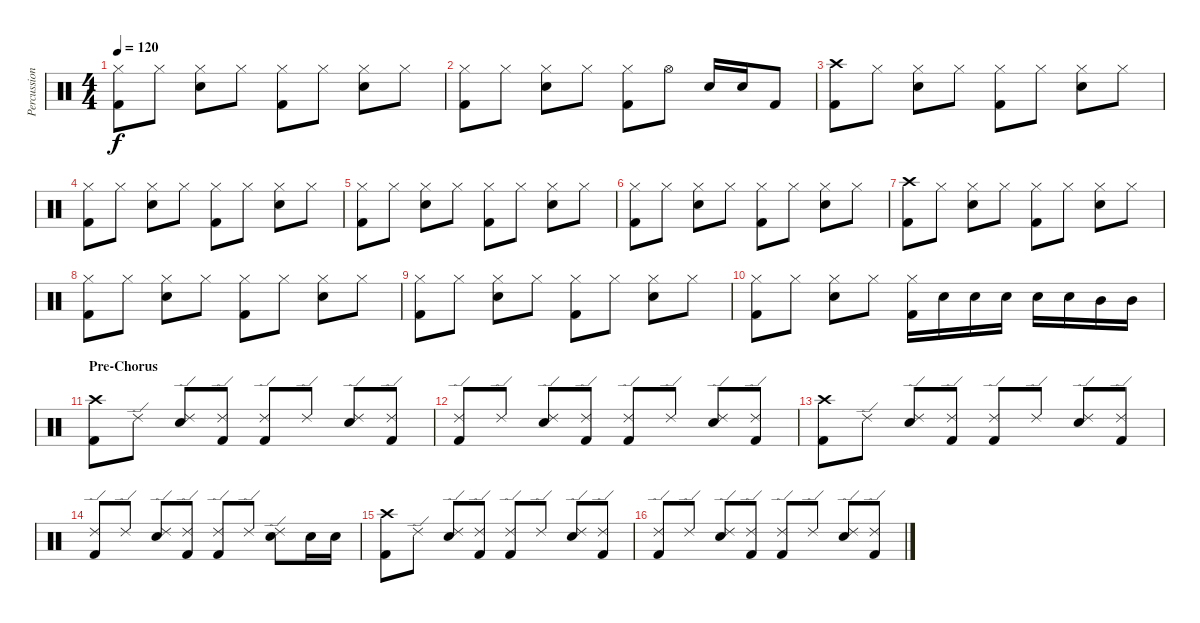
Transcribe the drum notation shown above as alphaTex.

\track ("Percussion" "Percussion") {instrument percussion}
\staff {score}
\articulation defaults
\ts (4 4)
\tempo 120
\clef neutral
\ks c
("Hi-Hat (closed)" "Kick (hit) 2").8{dy f} "Hi-Hat (closed)".8 ("Hi-Hat (closed)" "Snare (hit) 2").8 "Hi-Hat (closed)".8 ("Hi-Hat (closed)" "Kick (hit) 2").8 "Hi-Hat (closed)".8 ("Hi-Hat (closed)" "Snare (hit) 2").8 "Hi-Hat (closed)".8 |
("Hi-Hat (closed)" "Kick (hit) 2").8 "Hi-Hat (closed)".8 ("Hi-Hat (closed)" "Snare (hit) 2").8 "Hi-Hat (closed)".8 ("Hi-Hat (closed)" "Kick (hit) 2").8 "Hi-Hat (open)".8 "Snare (hit) 2".16 "Snare (hit) 2".16 "Kick (hit) 2".8 |
("Crash high (hit)" "Kick (hit) 2").8 "Hi-Hat (closed)".8 ("Hi-Hat (closed)" "Snare (hit) 2").8 "Hi-Hat (closed)".8 ("Hi-Hat (closed)" "Kick (hit) 2").8 "Hi-Hat (closed)".8 ("Hi-Hat (closed)" "Snare (hit) 2").8 "Hi-Hat (closed)".8 |
("Hi-Hat (closed)" "Kick (hit) 2").8 "Hi-Hat (closed)".8 ("Hi-Hat (closed)" "Snare (hit) 2").8 "Hi-Hat (closed)".8 ("Hi-Hat (closed)" "Kick (hit) 2").8 "Hi-Hat (closed)".8 ("Hi-Hat (closed)" "Snare (hit) 2").8 "Hi-Hat (closed)".8 |
("Hi-Hat (closed)" "Kick (hit) 2").8 "Hi-Hat (closed)".8 ("Hi-Hat (closed)" "Snare (hit) 2").8 "Hi-Hat (closed)".8 ("Hi-Hat (closed)" "Kick (hit) 2").8 "Hi-Hat (closed)".8 ("Hi-Hat (closed)" "Snare (hit) 2").8 "Hi-Hat (closed)".8 |
("Hi-Hat (closed)" "Kick (hit) 2").8 "Hi-Hat (closed)".8 ("Hi-Hat (closed)" "Snare (hit) 2").8 "Hi-Hat (closed)".8 ("Hi-Hat (closed)" "Kick (hit) 2").8 "Hi-Hat (closed)".8 ("Hi-Hat (closed)" "Snare (hit) 2").8 "Hi-Hat (closed)".8 |
("Crash high (hit)" "Kick (hit) 2").8 "Hi-Hat (closed)".8 ("Hi-Hat (closed)" "Snare (hit) 2").8 "Hi-Hat (closed)".8 ("Hi-Hat (closed)" "Kick (hit) 2").8 "Hi-Hat (closed)".8 ("Hi-Hat (closed)" "Snare (hit) 2").8 "Hi-Hat (closed)".8 |
("Hi-Hat (closed)" "Kick (hit) 2").8 "Hi-Hat (closed)".8 ("Hi-Hat (closed)" "Snare (hit) 2").8 "Hi-Hat (closed)".8 ("Hi-Hat (closed)" "Kick (hit) 2").8 "Hi-Hat (closed)".8 ("Hi-Hat (closed)" "Snare (hit) 2").8 "Hi-Hat (closed)".8 |
("Hi-Hat (closed)" "Kick (hit) 2").8 "Hi-Hat (closed)".8 ("Hi-Hat (closed)" "Snare (hit) 2").8 "Hi-Hat (closed)".8 ("Hi-Hat (closed)" "Kick (hit) 2").8 "Hi-Hat (closed)".8 ("Hi-Hat (closed)" "Snare (hit) 2").8 "Hi-Hat (closed)".8 |
("Hi-Hat (closed)" "Kick (hit) 2").8 "Hi-Hat (closed)".8 ("Hi-Hat (closed)" "Snare (hit) 2").8 "Hi-Hat (closed)".8 ("Hi-Hat (closed)" "Kick (hit) 2").16 "Snare (hit) 2".16 "Snare (hit) 2".16 "Snare (hit) 2".16 "Snare (hit) 2".16 "Snare (hit) 2".16 "Mid Tom (hit)".16 "Mid Tom (hit)".16 |
\section ("" "Pre-Chorus")
("Crash high (hit)" "Kick (hit) 2").8 "Ride (edge) 2".8 ("Ride (edge) 2" "Snare (hit) 2").8 ("Ride (edge) 2" "Kick (hit) 2").8 ("Ride (edge) 2" "Kick (hit) 2").8 "Ride (edge) 2".8 ("Ride (edge) 2" "Snare (hit) 2").8 ("Ride (edge) 2" "Kick (hit) 2").8 |
("Ride (edge) 2" "Kick (hit) 2").8 "Ride (edge) 2".8 ("Ride (edge) 2" "Snare (hit) 2").8 ("Ride (edge) 2" "Kick (hit) 2").8 ("Ride (edge) 2" "Kick (hit) 2").8 "Ride (edge) 2".8 ("Ride (edge) 2" "Snare (hit) 2").8 ("Ride (edge) 2" "Kick (hit) 2").8 |
("Crash high (hit)" "Kick (hit) 2").8 "Ride (edge) 2".8 ("Ride (edge) 2" "Snare (hit) 2").8 ("Ride (edge) 2" "Kick (hit) 2").8 ("Ride (edge) 2" "Kick (hit) 2").8 "Ride (edge) 2".8 ("Ride (edge) 2" "Snare (hit) 2").8 ("Ride (edge) 2" "Kick (hit) 2").8 |
("Ride (edge) 2" "Kick (hit) 2").8 "Ride (edge) 2".8 ("Ride (edge) 2" "Snare (hit) 2").8 ("Ride (edge) 2" "Kick (hit) 2").8 ("Ride (edge) 2" "Kick (hit) 2").8 "Ride (edge) 2".8 ("Ride (edge) 2" "Snare (hit) 2").8 "Snare (hit) 2".16 "Snare (hit) 2".16 |
("Crash high (hit)" "Kick (hit) 2").8 "Ride (edge) 2".8 ("Ride (edge) 2" "Snare (hit) 2").8 ("Ride (edge) 2" "Kick (hit) 2").8 ("Ride (edge) 2" "Kick (hit) 2").8 "Ride (edge) 2".8 ("Ride (edge) 2" "Snare (hit) 2").8 ("Ride (edge) 2" "Kick (hit) 2").8 |
("Ride (edge) 2" "Kick (hit) 2").8 "Ride (edge) 2".8 ("Ride (edge) 2" "Snare (hit) 2").8 ("Ride (edge) 2" "Kick (hit) 2").8 ("Ride (edge) 2" "Kick (hit) 2").8 "Ride (edge) 2".8 ("Ride (edge) 2" "Snare (hit) 2").8 ("Ride (edge) 2" "Kick (hit) 2").8
